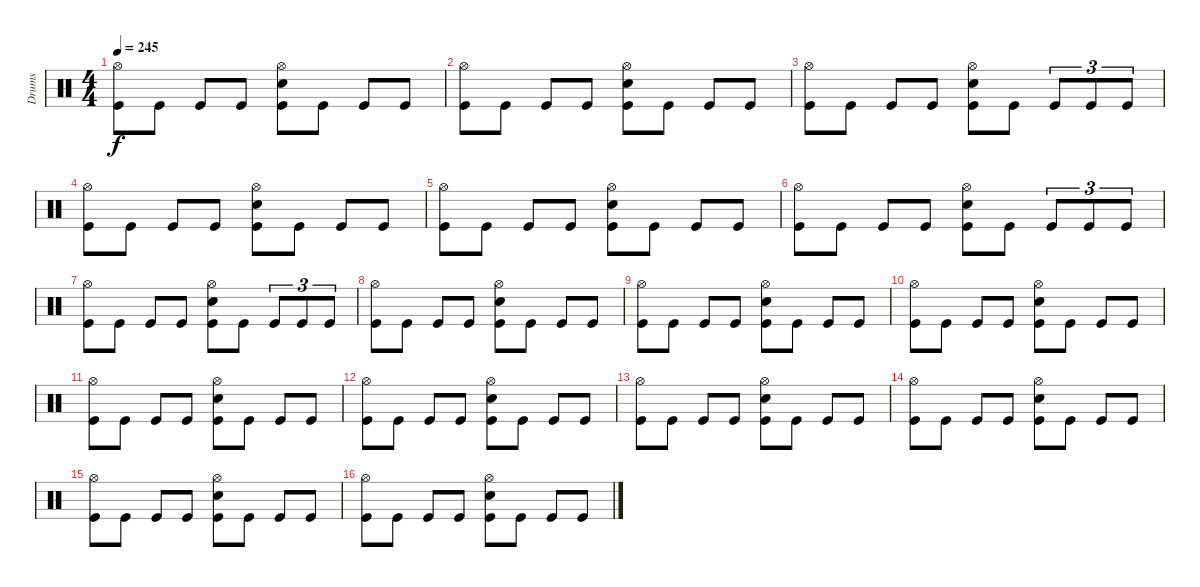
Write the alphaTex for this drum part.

\track ("Drums" "Drums") {instrument percussion}
\staff {score}
\articulation defaults
\ts (4 4)
\tempo 245
\clef neutral
\ks c
("Hi-Hat (open)" "Kick (hit)").8{dy f} "Kick (hit)".8 "Kick (hit)".8 "Kick (hit)".8 ("Hi-Hat (open)" "Electric Snare (hit)" "Kick (hit)").8 "Kick (hit)".8 "Kick (hit)".8 "Kick (hit)".8 |
("Hi-Hat (open)" "Kick (hit)").8 "Kick (hit)".8 "Kick (hit)".8 "Kick (hit)".8 ("Hi-Hat (open)" "Electric Snare (hit)" "Kick (hit)").8 "Kick (hit)".8 "Kick (hit)".8 "Kick (hit)".8 |
("Hi-Hat (open)" "Kick (hit)").8 "Kick (hit)".8 "Kick (hit)".8 "Kick (hit)".8 ("Hi-Hat (open)" "Electric Snare (hit)" "Kick (hit)").8 "Kick (hit)".8 "Kick (hit)".8{tu (3 2)} "Kick (hit)".8{tu (3 2)} "Kick (hit)".8{tu (3 2)} |
("Hi-Hat (open)" "Kick (hit)").8 "Kick (hit)".8 "Kick (hit)".8 "Kick (hit)".8 ("Hi-Hat (open)" "Electric Snare (hit)" "Kick (hit)").8 "Kick (hit)".8 "Kick (hit)".8 "Kick (hit)".8 |
("Hi-Hat (open)" "Kick (hit)").8 "Kick (hit)".8 "Kick (hit)".8 "Kick (hit)".8 ("Hi-Hat (open)" "Electric Snare (hit)" "Kick (hit)").8 "Kick (hit)".8 "Kick (hit)".8 "Kick (hit)".8 |
("Hi-Hat (open)" "Kick (hit)").8 "Kick (hit)".8 "Kick (hit)".8 "Kick (hit)".8 ("Hi-Hat (open)" "Electric Snare (hit)" "Kick (hit)").8 "Kick (hit)".8 "Kick (hit)".8{tu (3 2)} "Kick (hit)".8{tu (3 2)} "Kick (hit)".8{tu (3 2)} |
("Hi-Hat (open)" "Kick (hit)").8 "Kick (hit)".8 "Kick (hit)".8 "Kick (hit)".8 ("Hi-Hat (open)" "Electric Snare (hit)" "Kick (hit)").8 "Kick (hit)".8 "Kick (hit)".8{tu (3 2)} "Kick (hit)".8{tu (3 2)} "Kick (hit)".8{tu (3 2)} |
("Hi-Hat (open)" "Kick (hit)").8 "Kick (hit)".8 "Kick (hit)".8 "Kick (hit)".8 ("Hi-Hat (open)" "Electric Snare (hit)" "Kick (hit)").8 "Kick (hit)".8 "Kick (hit)".8 "Kick (hit)".8 |
("Hi-Hat (open)" "Kick (hit)").8 "Kick (hit)".8 "Kick (hit)".8 "Kick (hit)".8 ("Hi-Hat (open)" "Electric Snare (hit)" "Kick (hit)").8 "Kick (hit)".8 "Kick (hit)".8 "Kick (hit)".8 |
("Hi-Hat (open)" "Kick (hit)").8 "Kick (hit)".8 "Kick (hit)".8 "Kick (hit)".8 ("Hi-Hat (open)" "Electric Snare (hit)" "Kick (hit)").8 "Kick (hit)".8 "Kick (hit)".8 "Kick (hit)".8 |
("Hi-Hat (open)" "Kick (hit)").8 "Kick (hit)".8 "Kick (hit)".8 "Kick (hit)".8 ("Hi-Hat (open)" "Electric Snare (hit)" "Kick (hit)").8 "Kick (hit)".8 "Kick (hit)".8 "Kick (hit)".8 |
("Hi-Hat (open)" "Kick (hit)").8 "Kick (hit)".8 "Kick (hit)".8 "Kick (hit)".8 ("Hi-Hat (open)" "Electric Snare (hit)" "Kick (hit)").8 "Kick (hit)".8 "Kick (hit)".8 "Kick (hit)".8 |
("Hi-Hat (open)" "Kick (hit)").8 "Kick (hit)".8 "Kick (hit)".8 "Kick (hit)".8 ("Hi-Hat (open)" "Electric Snare (hit)" "Kick (hit)").8 "Kick (hit)".8 "Kick (hit)".8 "Kick (hit)".8 |
("Hi-Hat (open)" "Kick (hit)").8 "Kick (hit)".8 "Kick (hit)".8 "Kick (hit)".8 ("Hi-Hat (open)" "Electric Snare (hit)" "Kick (hit)").8 "Kick (hit)".8 "Kick (hit)".8 "Kick (hit)".8 |
("Hi-Hat (open)" "Kick (hit)").8 "Kick (hit)".8 "Kick (hit)".8 "Kick (hit)".8 ("Hi-Hat (open)" "Electric Snare (hit)" "Kick (hit)").8 "Kick (hit)".8 "Kick (hit)".8 "Kick (hit)".8 |
("Hi-Hat (open)" "Kick (hit)").8 "Kick (hit)".8 "Kick (hit)".8 "Kick (hit)".8 ("Hi-Hat (open)" "Electric Snare (hit)" "Kick (hit)").8 "Kick (hit)".8 "Kick (hit)".8 "Kick (hit)".8
